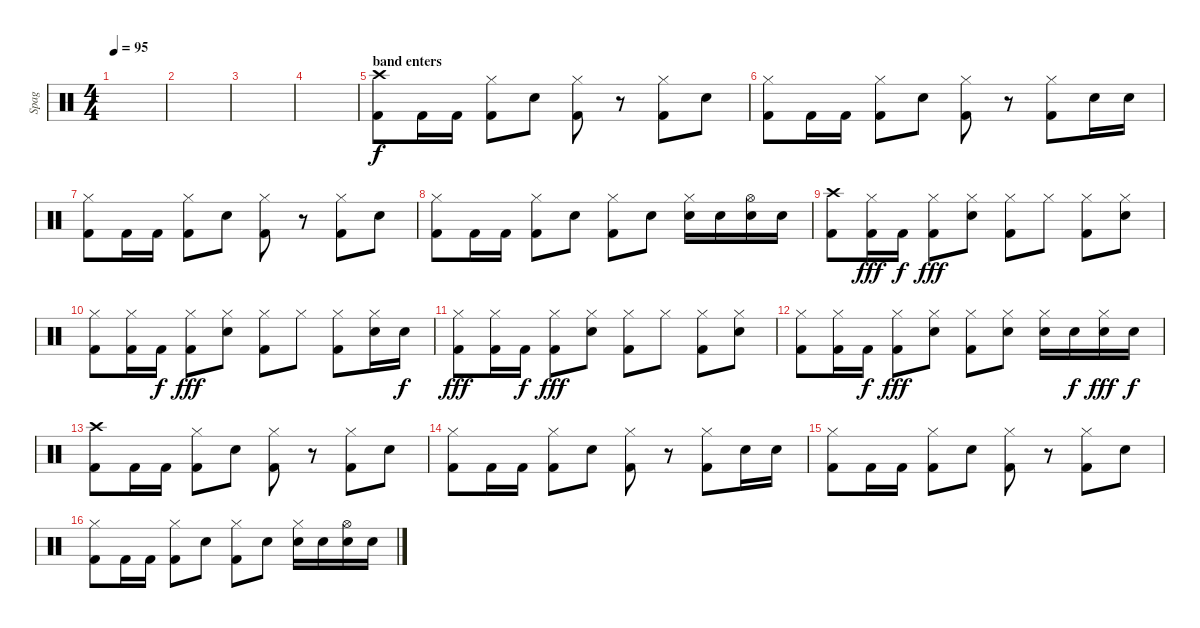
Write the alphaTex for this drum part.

\track ("Spag" "Spag") {instrument percussion}
\staff {score}
\articulation defaults
\ts (4 4)
\tempo 95
\clef neutral
\ks c
|
|
|
|
\section ("" "band enters")
("Crash high (hit)" "Kick (hit) 2").8 "Kick (hit) 2".16 "Kick (hit) 2".16 ("Hi-Hat (closed)" "Kick (hit) 2").8 "Electric Snare (hit)".8 ("Hi-Hat (closed)" "Kick (hit) 2").8 r.8 ("Hi-Hat (closed)" "Kick (hit) 2").8 "Electric Snare (hit)".8 |
("Hi-Hat (closed)" "Kick (hit) 2").8 "Kick (hit) 2".16 "Kick (hit) 2".16 ("Hi-Hat (closed)" "Kick (hit) 2").8 "Electric Snare (hit)".8 ("Hi-Hat (closed)" "Kick (hit) 2").8 r.8 ("Hi-Hat (closed)" "Kick (hit) 2").8 "Electric Snare (hit)".16 "Electric Snare (hit)".16 |
("Hi-Hat (closed)" "Kick (hit) 2").8 "Kick (hit) 2".16 "Kick (hit) 2".16 ("Hi-Hat (closed)" "Kick (hit) 2").8 "Electric Snare (hit)".8 ("Hi-Hat (closed)" "Kick (hit) 2").8 r.8 ("Hi-Hat (closed)" "Kick (hit) 2").8 "Electric Snare (hit)".8 |
("Hi-Hat (closed)" "Kick (hit) 2").8 "Kick (hit) 2".16 "Kick (hit) 2".16 ("Hi-Hat (closed)" "Kick (hit) 2").8 "Electric Snare (hit)".8 ("Hi-Hat (closed)" "Kick (hit) 2").8 "Electric Snare (hit)".8 ("Hi-Hat (closed)" "Electric Snare (hit)").16 "Electric Snare (hit)".16 ("Hi-Hat (open)" "Electric Snare (hit)").16 "Electric Snare (hit)".16 |
("Crash high (hit)" "Kick (hit) 2").8 ("Hi-Hat (closed)" "Kick (hit) 2").16{dy fff} "Kick (hit) 2".16{dy f} ("Hi-Hat (closed)" "Kick (hit) 2").8{dy fff} ("Hi-Hat (closed)" "Electric Snare (hit)").8 ("Hi-Hat (closed)" "Kick (hit) 2").8 "Hi-Hat (closed)".8 ("Hi-Hat (closed)" "Kick (hit) 2").8 ("Hi-Hat (closed)" "Electric Snare (hit)").8 |
("Hi-Hat (closed)" "Kick (hit) 2").8 ("Hi-Hat (closed)" "Kick (hit) 2").16 "Kick (hit) 2".16{dy f} ("Hi-Hat (closed)" "Kick (hit) 2").8{dy fff} ("Hi-Hat (closed)" "Electric Snare (hit)").8 ("Hi-Hat (closed)" "Kick (hit) 2").8 "Hi-Hat (closed)".8 ("Hi-Hat (closed)" "Kick (hit) 2").8 ("Hi-Hat (closed)" "Electric Snare (hit)").16 "Electric Snare (hit)".16{dy f} |
("Hi-Hat (closed)" "Kick (hit) 2").8{dy fff} ("Hi-Hat (closed)" "Kick (hit) 2").16 "Kick (hit) 2".16{dy f} ("Hi-Hat (closed)" "Kick (hit) 2").8{dy fff} ("Hi-Hat (closed)" "Electric Snare (hit)").8 ("Hi-Hat (closed)" "Kick (hit) 2").8 "Hi-Hat (closed)".8 ("Hi-Hat (closed)" "Kick (hit) 2").8 ("Hi-Hat (closed)" "Electric Snare (hit)").8 |
("Hi-Hat (closed)" "Kick (hit) 2").8 ("Hi-Hat (closed)" "Kick (hit) 2").16 "Kick (hit) 2".16{dy f} ("Hi-Hat (closed)" "Kick (hit) 2").8{dy fff} ("Hi-Hat (closed)" "Electric Snare (hit)").8 ("Hi-Hat (closed)" "Kick (hit) 2").8 ("Hi-Hat (closed)" "Electric Snare (hit)").8 ("Hi-Hat (closed)" "Electric Snare (hit)").16 "Electric Snare (hit)".16{dy f} ("Hi-Hat (closed)" "Electric Snare (hit)").16{dy fff} "Electric Snare (hit)".16{dy f} |
("Crash high (hit)" "Kick (hit) 2").8 "Kick (hit) 2".16 "Kick (hit) 2".16 ("Hi-Hat (closed)" "Kick (hit) 2").8 "Electric Snare (hit)".8 ("Hi-Hat (closed)" "Kick (hit) 2").8 r.8 ("Hi-Hat (closed)" "Kick (hit) 2").8 "Electric Snare (hit)".8 |
("Hi-Hat (closed)" "Kick (hit) 2").8 "Kick (hit) 2".16 "Kick (hit) 2".16 ("Hi-Hat (closed)" "Kick (hit) 2").8 "Electric Snare (hit)".8 ("Hi-Hat (closed)" "Kick (hit) 2").8 r.8 ("Hi-Hat (closed)" "Kick (hit) 2").8 "Electric Snare (hit)".16 "Electric Snare (hit)".16 |
("Hi-Hat (closed)" "Kick (hit) 2").8 "Kick (hit) 2".16 "Kick (hit) 2".16 ("Hi-Hat (closed)" "Kick (hit) 2").8 "Electric Snare (hit)".8 ("Hi-Hat (closed)" "Kick (hit) 2").8 r.8 ("Hi-Hat (closed)" "Kick (hit) 2").8 "Electric Snare (hit)".8 |
("Hi-Hat (closed)" "Kick (hit) 2").8 "Kick (hit) 2".16 "Kick (hit) 2".16 ("Hi-Hat (closed)" "Kick (hit) 2").8 "Electric Snare (hit)".8 ("Hi-Hat (closed)" "Kick (hit) 2").8 "Electric Snare (hit)".8 ("Hi-Hat (closed)" "Electric Snare (hit)").16 "Electric Snare (hit)".16 ("Hi-Hat (open)" "Electric Snare (hit)").16 "Electric Snare (hit)".16
